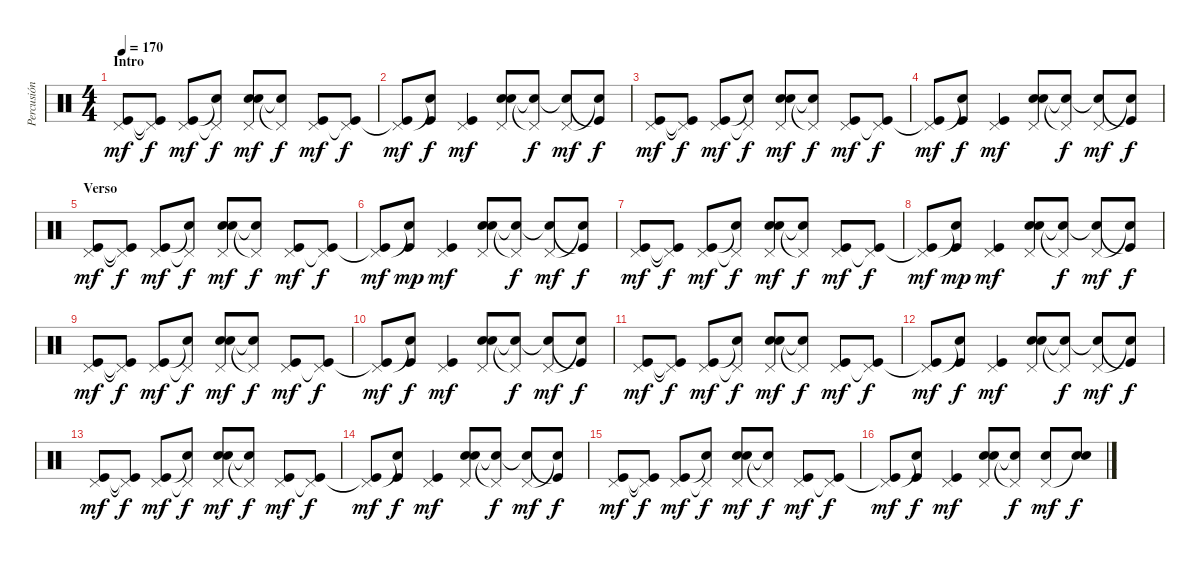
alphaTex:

\track ("Percusión" "Percusión") {instrument percussion}
\staff {score}
\articulation defaults
\ts (4 4)
\section ("" "Intro")
\tempo 170
\clef neutral
\ks c
("Kick (hit)" "Pedal Hi-Hat (hit)").8{dy mf} ("Kick (hit)"{t} "Pedal Hi-Hat (hit)"{t}).8{dy f} ("Kick (hit)" "Pedal Hi-Hat (hit)").8{dy mf} ("Snare (hit)"{t} "Pedal Hi-Hat (hit)"{t}).8{dy f} ("Snare (hit) 2" "Electric Snare (hit)" "Pedal Hi-Hat (hit)").8{dy mf} ("Snare (hit)"{t} "Pedal Hi-Hat (hit)"{t}).8{dy f} ("Kick (hit)" "Pedal Hi-Hat (hit)").8{dy mf} ("Kick (hit)" "Pedal Hi-Hat (hit)"{t}).8{dy f} |
("Kick (hit)"{t} "Pedal Hi-Hat (hit)").8{dy mf} ("Kick (hit)" "Snare (hit)"{t}).8{dy f} ("Kick (hit)" "Pedal Hi-Hat (hit)").4{dy mf} ("Electric Snare (hit)" "Snare (hit) 2" "Pedal Hi-Hat (hit)").8 ("Snare (hit)"{t} "Pedal Hi-Hat (hit)"{t}).8{dy f} ("Snare (hit)"{t} "Pedal Hi-Hat (hit)").8{dy mf} ("Kick (hit)"{t} "Snare (hit)"{t}).8{dy f} |
("Kick (hit)" "Pedal Hi-Hat (hit)").8{dy mf} ("Kick (hit)"{t} "Pedal Hi-Hat (hit)"{t}).8{dy f} ("Kick (hit)" "Pedal Hi-Hat (hit)").8{dy mf} ("Snare (hit)"{t} "Pedal Hi-Hat (hit)"{t}).8{dy f} ("Snare (hit) 2" "Electric Snare (hit)" "Pedal Hi-Hat (hit)").8{dy mf} ("Snare (hit)"{t} "Pedal Hi-Hat (hit)"{t}).8{dy f} ("Kick (hit)" "Pedal Hi-Hat (hit)").8{dy mf} ("Kick (hit)" "Pedal Hi-Hat (hit)"{t}).8{dy f} |
("Kick (hit)"{t} "Pedal Hi-Hat (hit)").8{dy mf} ("Kick (hit)" "Snare (hit)"{t}).8{dy f} ("Kick (hit)" "Pedal Hi-Hat (hit)").4{dy mf} ("Electric Snare (hit)" "Snare (hit) 2" "Pedal Hi-Hat (hit)").8 ("Snare (hit)"{t} "Pedal Hi-Hat (hit)"{t}).8{dy f} ("Snare (hit)"{t} "Pedal Hi-Hat (hit)").8{dy mf} ("Kick (hit)"{t} "Snare (hit)"{t}).8{dy f} |
\section ("" "Verso")
("Kick (hit)" "Pedal Hi-Hat (hit)").8{dy mf} ("Kick (hit)"{t} "Pedal Hi-Hat (hit)"{t}).8{dy f} ("Kick (hit)" "Pedal Hi-Hat (hit)").8{dy mf} ("Snare (hit)"{t} "Pedal Hi-Hat (hit)"{t}).8{dy f} ("Snare (hit) 2" "Electric Snare (hit)" "Pedal Hi-Hat (hit)").8{dy mf} ("Snare (hit)"{t} "Pedal Hi-Hat (hit)"{t}).8{dy f} ("Kick (hit)" "Pedal Hi-Hat (hit)").8{dy mf} ("Kick (hit)" "Pedal Hi-Hat (hit)"{t}).8{dy f} |
("Kick (hit)"{t} "Pedal Hi-Hat (hit)").8{dy mf} ("Kick (hit)" "Snare (hit)"{t}).8{dy mp} ("Kick (hit)" "Pedal Hi-Hat (hit)").4{dy mf} ("Electric Snare (hit)" "Snare (hit) 2" "Pedal Hi-Hat (hit)").8 ("Snare (hit)"{t} "Pedal Hi-Hat (hit)"{t}).8{dy f} ("Snare (hit)"{t} "Pedal Hi-Hat (hit)").8{dy mf} ("Kick (hit)"{t} "Snare (hit)"{t}).8{dy f} |
("Kick (hit)" "Pedal Hi-Hat (hit)").8{dy mf} ("Kick (hit)"{t} "Pedal Hi-Hat (hit)"{t}).8{dy f} ("Kick (hit)" "Pedal Hi-Hat (hit)").8{dy mf} ("Snare (hit)"{t} "Pedal Hi-Hat (hit)"{t}).8{dy f} ("Snare (hit) 2" "Electric Snare (hit)" "Pedal Hi-Hat (hit)").8{dy mf} ("Snare (hit)"{t} "Pedal Hi-Hat (hit)"{t}).8{dy f} ("Kick (hit)" "Pedal Hi-Hat (hit)").8{dy mf} ("Kick (hit)" "Pedal Hi-Hat (hit)"{t}).8{dy f} |
("Kick (hit)"{t} "Pedal Hi-Hat (hit)").8{dy mf} ("Kick (hit)" "Snare (hit)"{t}).8{dy mp} ("Kick (hit)" "Pedal Hi-Hat (hit)").4{dy mf} ("Electric Snare (hit)" "Snare (hit) 2" "Pedal Hi-Hat (hit)").8 ("Snare (hit)"{t} "Pedal Hi-Hat (hit)"{t}).8{dy f} ("Snare (hit)"{t} "Pedal Hi-Hat (hit)").8{dy mf} ("Kick (hit)"{t} "Snare (hit)"{t}).8{dy f} |
("Kick (hit)" "Pedal Hi-Hat (hit)").8{dy mf} ("Kick (hit)"{t} "Pedal Hi-Hat (hit)"{t}).8{dy f} ("Kick (hit)" "Pedal Hi-Hat (hit)").8{dy mf} ("Snare (hit)"{t} "Pedal Hi-Hat (hit)"{t}).8{dy f} ("Snare (hit) 2" "Electric Snare (hit)" "Pedal Hi-Hat (hit)").8{dy mf} ("Snare (hit)"{t} "Pedal Hi-Hat (hit)"{t}).8{dy f} ("Kick (hit)" "Pedal Hi-Hat (hit)").8{dy mf} ("Kick (hit)" "Pedal Hi-Hat (hit)"{t}).8{dy f} |
("Kick (hit)"{t} "Pedal Hi-Hat (hit)").8{dy mf} ("Kick (hit)" "Snare (hit)"{t}).8{dy f} ("Kick (hit)" "Pedal Hi-Hat (hit)").4{dy mf} ("Electric Snare (hit)" "Snare (hit) 2" "Pedal Hi-Hat (hit)").8 ("Snare (hit)"{t} "Pedal Hi-Hat (hit)"{t}).8{dy f} ("Snare (hit)"{t} "Pedal Hi-Hat (hit)").8{dy mf} ("Kick (hit)"{t} "Snare (hit)"{t}).8{dy f} |
("Kick (hit)" "Pedal Hi-Hat (hit)").8{dy mf} ("Kick (hit)"{t} "Pedal Hi-Hat (hit)"{t}).8{dy f} ("Kick (hit)" "Pedal Hi-Hat (hit)").8{dy mf} ("Snare (hit)"{t} "Pedal Hi-Hat (hit)"{t}).8{dy f} ("Snare (hit) 2" "Electric Snare (hit)" "Pedal Hi-Hat (hit)").8{dy mf} ("Snare (hit)"{t} "Pedal Hi-Hat (hit)"{t}).8{dy f} ("Kick (hit)" "Pedal Hi-Hat (hit)").8{dy mf} ("Kick (hit)" "Pedal Hi-Hat (hit)"{t}).8{dy f} |
("Kick (hit)"{t} "Pedal Hi-Hat (hit)").8{dy mf} ("Kick (hit)" "Snare (hit)"{t}).8{dy f} ("Kick (hit)" "Pedal Hi-Hat (hit)").4{dy mf} ("Electric Snare (hit)" "Snare (hit) 2" "Pedal Hi-Hat (hit)").8 ("Snare (hit)"{t} "Pedal Hi-Hat (hit)"{t}).8{dy f} ("Snare (hit)"{t} "Pedal Hi-Hat (hit)").8{dy mf} ("Kick (hit)"{t} "Snare (hit)"{t}).8{dy f} |
("Kick (hit)" "Pedal Hi-Hat (hit)").8{dy mf} ("Kick (hit)"{t} "Pedal Hi-Hat (hit)"{t}).8{dy f} ("Kick (hit)" "Pedal Hi-Hat (hit)").8{dy mf} ("Snare (hit)"{t} "Pedal Hi-Hat (hit)"{t}).8{dy f} ("Snare (hit) 2" "Electric Snare (hit)" "Pedal Hi-Hat (hit)").8{dy mf} ("Snare (hit)"{t} "Pedal Hi-Hat (hit)"{t}).8{dy f} ("Kick (hit)" "Pedal Hi-Hat (hit)").8{dy mf} ("Kick (hit)" "Pedal Hi-Hat (hit)"{t}).8{dy f} |
("Kick (hit)"{t} "Pedal Hi-Hat (hit)").8{dy mf} ("Kick (hit)" "Snare (hit)"{t}).8{dy f} ("Kick (hit)" "Pedal Hi-Hat (hit)").4{dy mf} ("Electric Snare (hit)" "Snare (hit) 2" "Pedal Hi-Hat (hit)").8 ("Snare (hit)"{t} "Pedal Hi-Hat (hit)"{t}).8{dy f} ("Snare (hit)"{t} "Pedal Hi-Hat (hit)").8{dy mf} ("Kick (hit)"{t} "Snare (hit)"{t}).8{dy f} |
("Kick (hit)" "Pedal Hi-Hat (hit)").8{dy mf} ("Kick (hit)"{t} "Pedal Hi-Hat (hit)"{t}).8{dy f} ("Kick (hit)" "Pedal Hi-Hat (hit)").8{dy mf} ("Snare (hit)"{t} "Pedal Hi-Hat (hit)"{t}).8{dy f} ("Snare (hit) 2" "Electric Snare (hit)" "Pedal Hi-Hat (hit)").8{dy mf} ("Snare (hit)"{t} "Pedal Hi-Hat (hit)"{t}).8{dy f} ("Kick (hit)" "Pedal Hi-Hat (hit)").8{dy mf} ("Kick (hit)" "Pedal Hi-Hat (hit)"{t}).8{dy f} |
("Kick (hit)"{t} "Pedal Hi-Hat (hit)").8{dy mf} ("Kick (hit)" "Snare (hit)"{t}).8{dy f} ("Kick (hit)" "Pedal Hi-Hat (hit)").4{dy mf} ("Electric Snare (hit)" "Snare (hit) 2" "Pedal Hi-Hat (hit)").8 ("Snare (hit)"{t} "Pedal Hi-Hat (hit)"{t}).8{dy f} ("Electric Snare (hit)" "Pedal Hi-Hat (hit)").8{dy mf} ("Electric Snare (hit)" "Snare (hit)"{t}).8{dy f}
